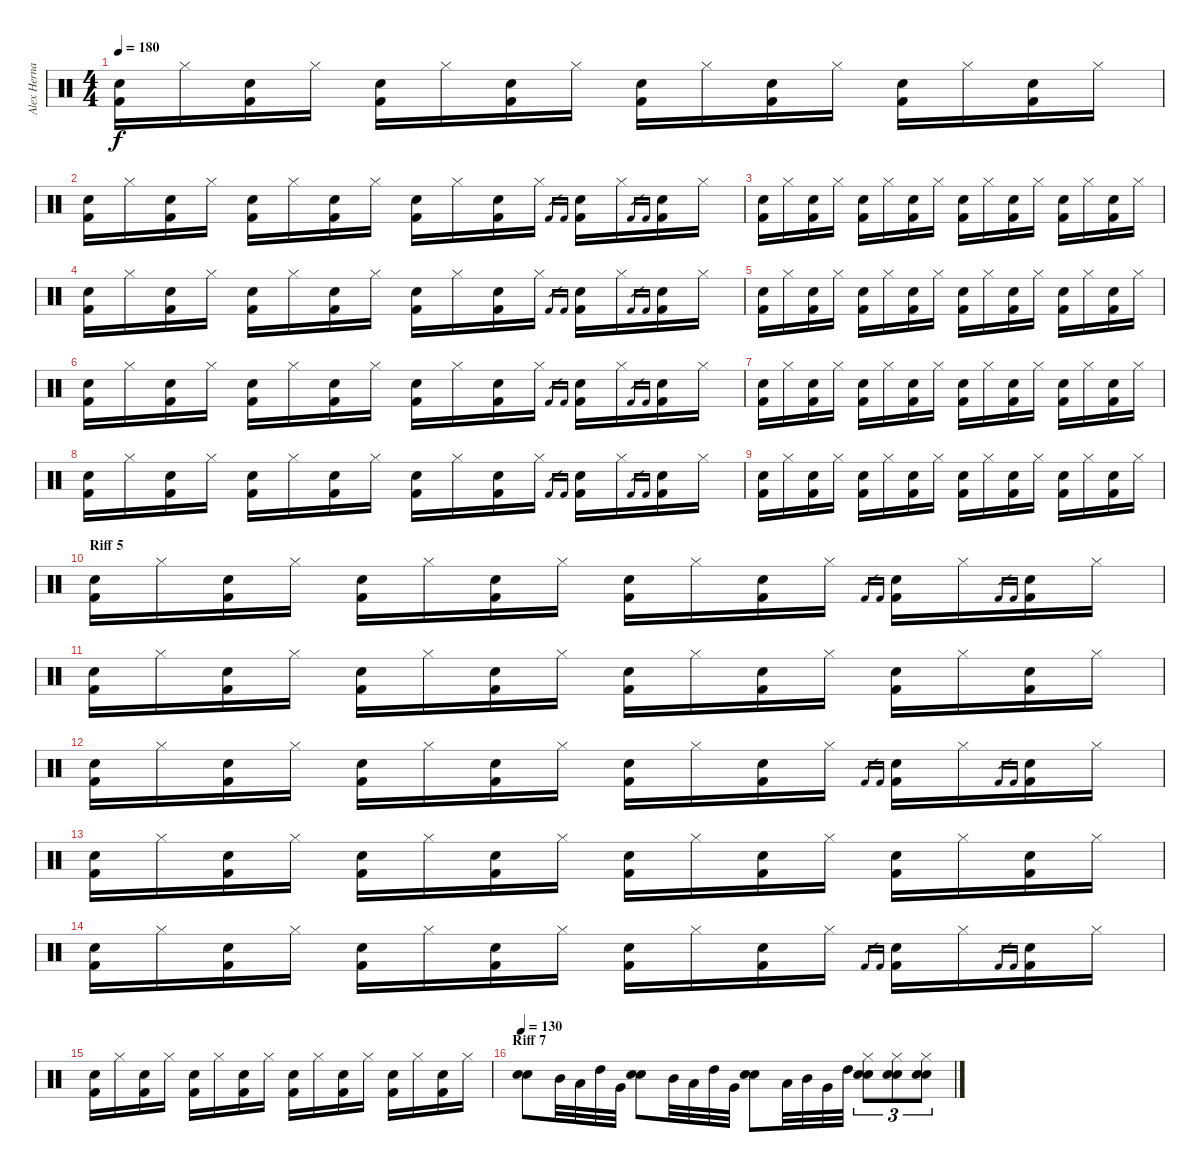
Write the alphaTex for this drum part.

\track ("Alex Hernandez" "Alex Herna") {instrument percussion}
\staff {score}
\articulation defaults
\ts (4 4)
\tempo 180
\clef neutral
\ks c
("Electric Snare (hit)" "Kick (hit) 2").16{dy f} "Hi-Hat (closed)".16 ("Electric Snare (hit)" "Kick (hit) 2").16 "Hi-Hat (closed)".16 ("Electric Snare (hit)" "Kick (hit) 2").16 "Hi-Hat (closed)".16 ("Electric Snare (hit)" "Kick (hit) 2").16 "Hi-Hat (closed)".16 ("Electric Snare (hit)" "Kick (hit) 2").16 "Hi-Hat (closed)".16 ("Electric Snare (hit)" "Kick (hit) 2").16 "Hi-Hat (closed)".16 ("Electric Snare (hit)" "Kick (hit) 2").16 "Hi-Hat (closed)".16 ("Electric Snare (hit)" "Kick (hit) 2").16 "Hi-Hat (closed)".16 |
("Electric Snare (hit)" "Kick (hit) 2").16 "Hi-Hat (closed)".16 ("Electric Snare (hit)" "Kick (hit) 2").16 "Hi-Hat (closed)".16 ("Electric Snare (hit)" "Kick (hit) 2").16 "Hi-Hat (closed)".16 ("Electric Snare (hit)" "Kick (hit) 2").16 "Hi-Hat (closed)".16 ("Electric Snare (hit)" "Kick (hit) 2").16 "Hi-Hat (closed)".16 ("Electric Snare (hit)" "Kick (hit) 2").16 "Hi-Hat (closed)".16 "Kick (hit) 2".16{gr} "Kick (hit) 2".16{gr} ("Electric Snare (hit)" "Kick (hit) 2").16 "Hi-Hat (closed)".16 "Kick (hit) 2".16{gr} "Kick (hit) 2".16{gr} ("Electric Snare (hit)" "Kick (hit) 2").16 "Hi-Hat (closed)".16 |
("Electric Snare (hit)" "Kick (hit) 2").16 "Hi-Hat (closed)".16 ("Electric Snare (hit)" "Kick (hit) 2").16 "Hi-Hat (closed)".16 ("Electric Snare (hit)" "Kick (hit) 2").16 "Hi-Hat (closed)".16 ("Electric Snare (hit)" "Kick (hit) 2").16 "Hi-Hat (closed)".16 ("Electric Snare (hit)" "Kick (hit) 2").16 "Hi-Hat (closed)".16 ("Electric Snare (hit)" "Kick (hit) 2").16 "Hi-Hat (closed)".16 ("Electric Snare (hit)" "Kick (hit) 2").16 "Hi-Hat (closed)".16 ("Electric Snare (hit)" "Kick (hit) 2").16 "Hi-Hat (closed)".16 |
("Electric Snare (hit)" "Kick (hit) 2").16 "Hi-Hat (closed)".16 ("Electric Snare (hit)" "Kick (hit) 2").16 "Hi-Hat (closed)".16 ("Electric Snare (hit)" "Kick (hit) 2").16 "Hi-Hat (closed)".16 ("Electric Snare (hit)" "Kick (hit) 2").16 "Hi-Hat (closed)".16 ("Electric Snare (hit)" "Kick (hit) 2").16 "Hi-Hat (closed)".16 ("Electric Snare (hit)" "Kick (hit) 2").16 "Hi-Hat (closed)".16 "Kick (hit) 2".16{gr} "Kick (hit) 2".16{gr} ("Electric Snare (hit)" "Kick (hit) 2").16 "Hi-Hat (closed)".16 "Kick (hit) 2".16{gr} "Kick (hit) 2".16{gr} ("Electric Snare (hit)" "Kick (hit) 2").16 "Hi-Hat (closed)".16 |
("Electric Snare (hit)" "Kick (hit) 2").16 "Hi-Hat (closed)".16 ("Electric Snare (hit)" "Kick (hit) 2").16 "Hi-Hat (closed)".16 ("Electric Snare (hit)" "Kick (hit) 2").16 "Hi-Hat (closed)".16 ("Electric Snare (hit)" "Kick (hit) 2").16 "Hi-Hat (closed)".16 ("Electric Snare (hit)" "Kick (hit) 2").16 "Hi-Hat (closed)".16 ("Electric Snare (hit)" "Kick (hit) 2").16 "Hi-Hat (closed)".16 ("Electric Snare (hit)" "Kick (hit) 2").16 "Hi-Hat (closed)".16 ("Electric Snare (hit)" "Kick (hit) 2").16 "Hi-Hat (closed)".16 |
("Electric Snare (hit)" "Kick (hit) 2").16 "Hi-Hat (closed)".16 ("Electric Snare (hit)" "Kick (hit) 2").16 "Hi-Hat (closed)".16 ("Electric Snare (hit)" "Kick (hit) 2").16 "Hi-Hat (closed)".16 ("Electric Snare (hit)" "Kick (hit) 2").16 "Hi-Hat (closed)".16 ("Electric Snare (hit)" "Kick (hit) 2").16 "Hi-Hat (closed)".16 ("Electric Snare (hit)" "Kick (hit) 2").16 "Hi-Hat (closed)".16 "Kick (hit) 2".16{gr} "Kick (hit) 2".16{gr} ("Electric Snare (hit)" "Kick (hit) 2").16 "Hi-Hat (closed)".16 "Kick (hit) 2".16{gr} "Kick (hit) 2".16{gr} ("Electric Snare (hit)" "Kick (hit) 2").16 "Hi-Hat (closed)".16 |
("Electric Snare (hit)" "Kick (hit) 2").16 "Hi-Hat (closed)".16 ("Electric Snare (hit)" "Kick (hit) 2").16 "Hi-Hat (closed)".16 ("Electric Snare (hit)" "Kick (hit) 2").16 "Hi-Hat (closed)".16 ("Electric Snare (hit)" "Kick (hit) 2").16 "Hi-Hat (closed)".16 ("Electric Snare (hit)" "Kick (hit) 2").16 "Hi-Hat (closed)".16 ("Electric Snare (hit)" "Kick (hit) 2").16 "Hi-Hat (closed)".16 ("Electric Snare (hit)" "Kick (hit) 2").16 "Hi-Hat (closed)".16 ("Electric Snare (hit)" "Kick (hit) 2").16 "Hi-Hat (closed)".16 |
("Electric Snare (hit)" "Kick (hit) 2").16 "Hi-Hat (closed)".16 ("Electric Snare (hit)" "Kick (hit) 2").16 "Hi-Hat (closed)".16 ("Electric Snare (hit)" "Kick (hit) 2").16 "Hi-Hat (closed)".16 ("Electric Snare (hit)" "Kick (hit) 2").16 "Hi-Hat (closed)".16 ("Electric Snare (hit)" "Kick (hit) 2").16 "Hi-Hat (closed)".16 ("Electric Snare (hit)" "Kick (hit) 2").16 "Hi-Hat (closed)".16 "Kick (hit) 2".16{gr} "Kick (hit) 2".16{gr} ("Electric Snare (hit)" "Kick (hit) 2").16 "Hi-Hat (closed)".16 "Kick (hit) 2".16{gr} "Kick (hit) 2".16{gr} ("Electric Snare (hit)" "Kick (hit) 2").16 "Hi-Hat (closed)".16 |
("Electric Snare (hit)" "Kick (hit) 2").16 "Hi-Hat (closed)".16 ("Electric Snare (hit)" "Kick (hit) 2").16 "Hi-Hat (closed)".16 ("Electric Snare (hit)" "Kick (hit) 2").16 "Hi-Hat (closed)".16 ("Electric Snare (hit)" "Kick (hit) 2").16 "Hi-Hat (closed)".16 ("Electric Snare (hit)" "Kick (hit) 2").16 "Hi-Hat (closed)".16 ("Electric Snare (hit)" "Kick (hit) 2").16 "Hi-Hat (closed)".16 ("Electric Snare (hit)" "Kick (hit) 2").16 "Hi-Hat (closed)".16 ("Electric Snare (hit)" "Kick (hit) 2").16 "Hi-Hat (closed)".16 |
\section ("" "Riff 5")
("Electric Snare (hit)" "Kick (hit) 2").16 "Hi-Hat (closed)".16 ("Electric Snare (hit)" "Kick (hit) 2").16 "Hi-Hat (closed)".16 ("Electric Snare (hit)" "Kick (hit) 2").16 "Hi-Hat (closed)".16 ("Electric Snare (hit)" "Kick (hit) 2").16 "Hi-Hat (closed)".16 ("Electric Snare (hit)" "Kick (hit) 2").16 "Hi-Hat (closed)".16 ("Electric Snare (hit)" "Kick (hit) 2").16 "Hi-Hat (closed)".16 "Kick (hit) 2".16{gr} "Kick (hit) 2".16{gr} ("Electric Snare (hit)" "Kick (hit) 2").16 "Hi-Hat (closed)".16 "Kick (hit) 2".16{gr} "Kick (hit) 2".16{gr} ("Electric Snare (hit)" "Kick (hit) 2").16 "Hi-Hat (closed)".16 |
("Electric Snare (hit)" "Kick (hit) 2").16 "Hi-Hat (closed)".16 ("Electric Snare (hit)" "Kick (hit) 2").16 "Hi-Hat (closed)".16 ("Electric Snare (hit)" "Kick (hit) 2").16 "Hi-Hat (closed)".16 ("Electric Snare (hit)" "Kick (hit) 2").16 "Hi-Hat (closed)".16 ("Electric Snare (hit)" "Kick (hit) 2").16 "Hi-Hat (closed)".16 ("Electric Snare (hit)" "Kick (hit) 2").16 "Hi-Hat (closed)".16 ("Electric Snare (hit)" "Kick (hit) 2").16 "Hi-Hat (closed)".16 ("Electric Snare (hit)" "Kick (hit) 2").16 "Hi-Hat (closed)".16 |
("Electric Snare (hit)" "Kick (hit) 2").16 "Hi-Hat (closed)".16 ("Electric Snare (hit)" "Kick (hit) 2").16 "Hi-Hat (closed)".16 ("Electric Snare (hit)" "Kick (hit) 2").16 "Hi-Hat (closed)".16 ("Electric Snare (hit)" "Kick (hit) 2").16 "Hi-Hat (closed)".16 ("Electric Snare (hit)" "Kick (hit) 2").16 "Hi-Hat (closed)".16 ("Electric Snare (hit)" "Kick (hit) 2").16 "Hi-Hat (closed)".16 "Kick (hit) 2".16{gr} "Kick (hit) 2".16{gr} ("Electric Snare (hit)" "Kick (hit) 2").16 "Hi-Hat (closed)".16 "Kick (hit) 2".16{gr} "Kick (hit) 2".16{gr} ("Electric Snare (hit)" "Kick (hit) 2").16 "Hi-Hat (closed)".16 |
("Electric Snare (hit)" "Kick (hit) 2").16 "Hi-Hat (closed)".16 ("Electric Snare (hit)" "Kick (hit) 2").16 "Hi-Hat (closed)".16 ("Electric Snare (hit)" "Kick (hit) 2").16 "Hi-Hat (closed)".16 ("Electric Snare (hit)" "Kick (hit) 2").16 "Hi-Hat (closed)".16 ("Electric Snare (hit)" "Kick (hit) 2").16 "Hi-Hat (closed)".16 ("Electric Snare (hit)" "Kick (hit) 2").16 "Hi-Hat (closed)".16 ("Electric Snare (hit)" "Kick (hit) 2").16 "Hi-Hat (closed)".16 ("Electric Snare (hit)" "Kick (hit) 2").16 "Hi-Hat (closed)".16 |
("Electric Snare (hit)" "Kick (hit) 2").16 "Hi-Hat (closed)".16 ("Electric Snare (hit)" "Kick (hit) 2").16 "Hi-Hat (closed)".16 ("Electric Snare (hit)" "Kick (hit) 2").16 "Hi-Hat (closed)".16 ("Electric Snare (hit)" "Kick (hit) 2").16 "Hi-Hat (closed)".16 ("Electric Snare (hit)" "Kick (hit) 2").16 "Hi-Hat (closed)".16 ("Electric Snare (hit)" "Kick (hit) 2").16 "Hi-Hat (closed)".16 "Kick (hit) 2".16{gr} "Kick (hit) 2".16{gr} ("Electric Snare (hit)" "Kick (hit) 2").16 "Hi-Hat (closed)".16 "Kick (hit) 2".16{gr} "Kick (hit) 2".16{gr} ("Electric Snare (hit)" "Kick (hit) 2").16 "Hi-Hat (closed)".16 |
("Electric Snare (hit)" "Kick (hit) 2").16 "Hi-Hat (closed)".16 ("Electric Snare (hit)" "Kick (hit) 2").16 "Hi-Hat (closed)".16 ("Electric Snare (hit)" "Kick (hit) 2").16 "Hi-Hat (closed)".16 ("Electric Snare (hit)" "Kick (hit) 2").16 "Hi-Hat (closed)".16 ("Electric Snare (hit)" "Kick (hit) 2").16 "Hi-Hat (closed)".16 ("Electric Snare (hit)" "Kick (hit) 2").16 "Hi-Hat (closed)".16 ("Electric Snare (hit)" "Kick (hit) 2").16 "Hi-Hat (closed)".16 ("Electric Snare (hit)" "Kick (hit) 2").16 "Hi-Hat (closed)".16 |
\section ("" "Riff 7")
\tempo 130
("Snare (hit) 2" "Snare (hit) 2").8 "Mid Tom (hit)".32 "Low Tom (hit)".32 "High Tom (hit)".32 "Very Low Tom (hit)".32 ("Snare (hit) 2" "Snare (hit) 2").8 "Mid Tom (hit)".32 "Low Tom (hit)".32 "High Tom (hit)".32 "Very Low Tom (hit)".32 ("Snare (hit) 2" "Snare (hit) 2").8 "Low Tom (hit)".32 "Mid Tom (hit)".32 "Very Low Tom (hit)".32 "High Tom (hit)".32 ("Hi-Hat (closed)" "Snare (hit) 2" "Snare (hit) 2").8{tu (3 2)} ("Hi-Hat (closed)" "Snare (hit) 2" "Snare (hit) 2").8{tu (3 2)} ("Hi-Hat (closed)" "Snare (hit) 2" "Snare (hit) 2").8{tu (3 2)}
